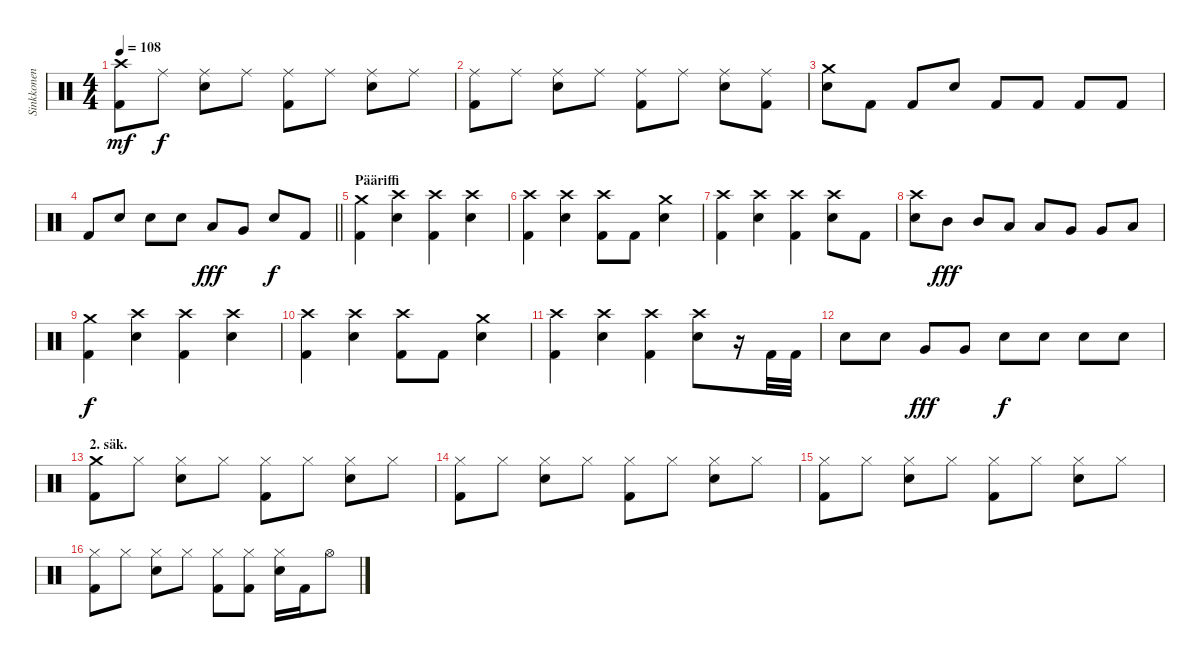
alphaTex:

\track ("Sinkkonen" "Sinkkonen") {instrument percussion}
\staff {score}
\articulation defaults
\ts (4 4)
\tempo 108
\clef neutral
\ks c
("Kick (hit) 2" "Crash high (hit)").8{dy mf} "Ride (middle)".8{dy f} ("Ride (middle)" "Snare (hit) 2").8 "Ride (middle)".8 ("Kick (hit) 2" "Ride (middle)").8 "Ride (middle)".8 ("Ride (middle)" "Snare (hit) 2").8 "Ride (middle)".8 |
("Kick (hit) 2" "Ride (middle)").8 "Ride (middle)".8 ("Ride (middle)" "Snare (hit) 2").8 "Ride (middle)".8 ("Kick (hit) 2" "Ride (middle)").8 "Ride (middle)".8 ("Ride (middle)" "Snare (hit) 2").8 ("Kick (hit) 2" "Ride (middle)").8 |
("Crash medium (hit)" "Snare (hit) 2").8 "Kick (hit) 2".8 "Kick (hit) 2".8 "Snare (hit) 2".8 "Kick (hit) 2".8 "Kick (hit) 2".8 "Kick (hit) 2".8 "Kick (hit) 2".8 |
\barLineRight lightlight "Kick (hit) 2".8 "Snare (hit) 2".8 "Snare (hit) 2".8 "Snare (hit) 2".8 "Low Tom (hit)".8{dy fff} "Very Low Tom (hit)".8 "Snare (hit) 2".8{dy f} "Kick (hit) 2".8
|
\section ("" "Pääriffi")
("Kick (hit) 2" "Crash medium (hit)").4 ("Crash high (hit)" "Snare (hit) 2").4 ("Kick (hit) 2" "Crash high (hit)").4 ("Crash high (hit)" "Snare (hit) 2").4 |
("Kick (hit) 2" "Crash high (hit)").4 ("Crash high (hit)" "Snare (hit) 2").4 ("Kick (hit) 2" "Crash high (hit)").8 "Kick (hit) 2".8 ("Crash medium (hit)" "Snare (hit) 2").4 |
("Kick (hit) 2" "Crash high (hit)").4 ("Crash high (hit)" "Snare (hit) 2").4 ("Kick (hit) 2" "Crash high (hit)").4 ("Crash high (hit)" "Snare (hit) 2").8 "Kick (hit) 2".8 |
("Crash high (hit)" "Snare (hit) 2").8 "Mid Tom (hit)".8{dy fff} "Mid Tom (hit)".8 "Low Tom (hit)".8 "Low Tom (hit)".8 "Very Low Tom (hit)".8 "Very Low Tom (hit)".8 "Low Floor Tom (hit)".8 |
("Kick (hit) 2" "Crash medium (hit)").4{dy f} ("Crash high (hit)" "Snare (hit) 2").4 ("Kick (hit) 2" "Crash high (hit)").4 ("Crash high (hit)" "Snare (hit) 2").4 |
("Kick (hit) 2" "Crash high (hit)").4 ("Crash high (hit)" "Snare (hit) 2").4 ("Kick (hit) 2" "Crash high (hit)").8 "Kick (hit) 2".8 ("Crash medium (hit)" "Snare (hit) 2").4 |
("Kick (hit) 2" "Crash high (hit)").4 ("Crash high (hit)" "Snare (hit) 2").4 ("Kick (hit) 2" "Crash high (hit)").4 ("Crash high (hit)" "Snare (hit) 2").8 r.16 "Kick (hit) 2".32 "Kick (hit) 2".32 |
"Snare (hit) 2".8 "Snare (hit) 2".8 "Very Low Tom (hit)".8{dy fff} "Very Low Tom (hit)".8 "Snare (hit) 2".8{dy f} "Snare (hit) 2".8 "Snare (hit) 2".8 "Snare (hit) 2".8 |
\section ("" "2. säk.")
("Kick (hit) 2" "Crash medium (hit)").8 "Hi-Hat (closed)".8 ("Hi-Hat (closed)" "Snare (hit) 2").8 "Hi-Hat (closed)".8 ("Kick (hit) 2" "Hi-Hat (closed)").8 "Hi-Hat (closed)".8 ("Hi-Hat (closed)" "Snare (hit) 2").8 "Hi-Hat (closed)".8 |
("Kick (hit) 2" "Hi-Hat (closed)").8 "Hi-Hat (closed)".8 ("Hi-Hat (closed)" "Snare (hit) 2").8 "Hi-Hat (closed)".8 ("Kick (hit) 2" "Hi-Hat (closed)").8 "Hi-Hat (closed)".8 ("Hi-Hat (closed)" "Snare (hit) 2").8 "Hi-Hat (closed)".8 |
("Kick (hit) 2" "Hi-Hat (closed)").8 "Hi-Hat (closed)".8 ("Hi-Hat (closed)" "Snare (hit) 2").8 "Hi-Hat (closed)".8 ("Kick (hit) 2" "Hi-Hat (closed)").8 "Hi-Hat (closed)".8 ("Hi-Hat (closed)" "Snare (hit) 2").8 "Hi-Hat (closed)".8 |
("Kick (hit) 2" "Hi-Hat (closed)").8 "Hi-Hat (closed)".8 ("Hi-Hat (closed)" "Snare (hit) 2").8 "Hi-Hat (closed)".8 ("Kick (hit) 2" "Hi-Hat (closed)").8 ("Kick (hit) 2" "Hi-Hat (closed)").8 ("Hi-Hat (closed)" "Snare (hit) 2").16 "Kick (hit) 2".16 "Hi-Hat (open)".8
